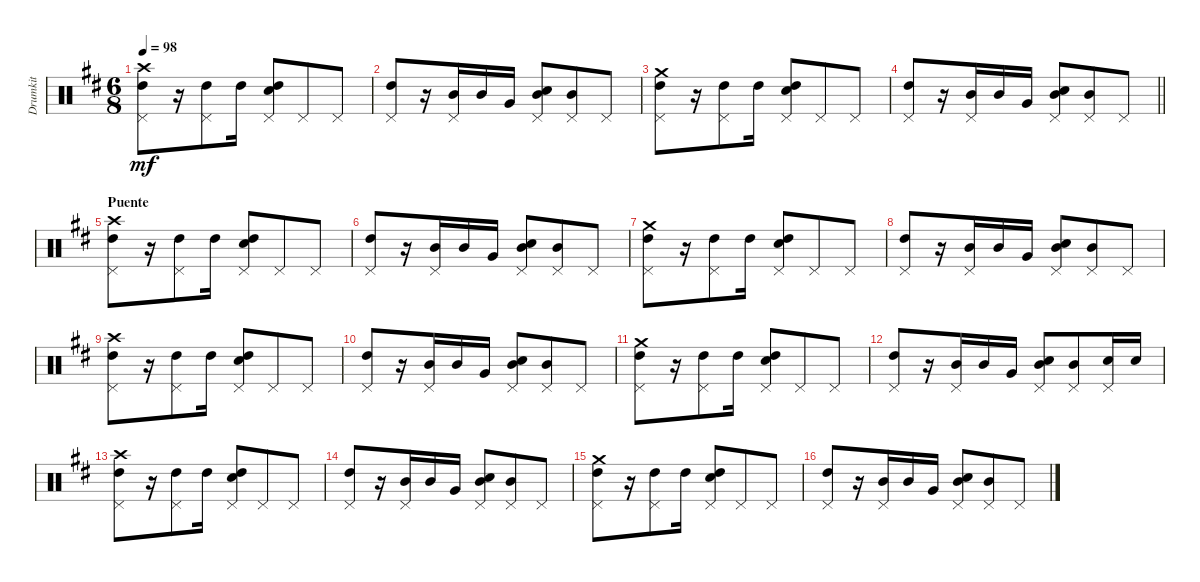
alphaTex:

\track ("Drumkit" "Drumkit") {instrument percussion}
\staff {score}
\articulation defaults
\ts (6 8)
\tempo 98
\clef neutral
\ks d
("High Tom (hit)" "Pedal Hi-Hat (hit)" "Crash high (hit)").8{dy mf} r.16 ("High Tom (hit)" "Pedal Hi-Hat (hit)").8 "High Tom (hit)".16 ("High Tom (hit)" "Snare (hit) 2" "Pedal Hi-Hat (hit)").8 "Pedal Hi-Hat (hit)".8 "Pedal Hi-Hat (hit)".8 |
("High Tom (hit)" "Pedal Hi-Hat (hit)").8 r.16 ("Mid Tom (hit)" "Pedal Hi-Hat (hit)").16 "Mid Tom (hit)".16 "Very Low Tom (hit)".16 ("Mid Tom (hit)" "Snare (hit) 2" "Pedal Hi-Hat (hit)").8 ("Mid Tom (hit)" "Pedal Hi-Hat (hit)").8 "Pedal Hi-Hat (hit)".8 |
("High Tom (hit)" "Pedal Hi-Hat (hit)" "Crash medium (hit)").8 r.16 ("High Tom (hit)" "Pedal Hi-Hat (hit)").8 "High Tom (hit)".16 ("High Tom (hit)" "Snare (hit) 2" "Pedal Hi-Hat (hit)").8 "Pedal Hi-Hat (hit)".8 "Pedal Hi-Hat (hit)".8 |
\barLineRight lightlight
("High Tom (hit)" "Pedal Hi-Hat (hit)").8 r.16 ("Mid Tom (hit)" "Pedal Hi-Hat (hit)").16 "Mid Tom (hit)".16 "Very Low Tom (hit)".16 ("Mid Tom (hit)" "Snare (hit) 2" "Pedal Hi-Hat (hit)").8 ("Mid Tom (hit)" "Pedal Hi-Hat (hit)").8 "Pedal Hi-Hat (hit)".8 |
\section ("" "Puente")
("High Tom (hit)" "Pedal Hi-Hat (hit)" "Crash high (hit)").8 r.16 ("High Tom (hit)" "Pedal Hi-Hat (hit)").8 "High Tom (hit)".16 ("High Tom (hit)" "Snare (hit) 2" "Pedal Hi-Hat (hit)").8 "Pedal Hi-Hat (hit)".8 "Pedal Hi-Hat (hit)".8 |
("High Tom (hit)" "Pedal Hi-Hat (hit)").8 r.16 ("Mid Tom (hit)" "Pedal Hi-Hat (hit)").16 "Mid Tom (hit)".16 "Very Low Tom (hit)".16 ("Mid Tom (hit)" "Snare (hit) 2" "Pedal Hi-Hat (hit)").8 ("Mid Tom (hit)" "Pedal Hi-Hat (hit)").8 "Pedal Hi-Hat (hit)".8 |
("High Tom (hit)" "Pedal Hi-Hat (hit)" "Crash medium (hit)").8 r.16 ("High Tom (hit)" "Pedal Hi-Hat (hit)").8 "High Tom (hit)".16 ("High Tom (hit)" "Snare (hit) 2" "Pedal Hi-Hat (hit)").8 "Pedal Hi-Hat (hit)".8 "Pedal Hi-Hat (hit)".8 |
("High Tom (hit)" "Pedal Hi-Hat (hit)").8 r.16 ("Mid Tom (hit)" "Pedal Hi-Hat (hit)").16 "Mid Tom (hit)".16 "Very Low Tom (hit)".16 ("Mid Tom (hit)" "Snare (hit) 2" "Pedal Hi-Hat (hit)").8 ("Mid Tom (hit)" "Pedal Hi-Hat (hit)").8 "Pedal Hi-Hat (hit)".8 |
("High Tom (hit)" "Pedal Hi-Hat (hit)" "Crash high (hit)").8 r.16 ("High Tom (hit)" "Pedal Hi-Hat (hit)").8 "High Tom (hit)".16 ("High Tom (hit)" "Snare (hit) 2" "Pedal Hi-Hat (hit)").8 "Pedal Hi-Hat (hit)".8 "Pedal Hi-Hat (hit)".8 |
("High Tom (hit)" "Pedal Hi-Hat (hit)").8 r.16 ("Mid Tom (hit)" "Pedal Hi-Hat (hit)").16 "Mid Tom (hit)".16 "Very Low Tom (hit)".16 ("Mid Tom (hit)" "Snare (hit) 2" "Pedal Hi-Hat (hit)").8 ("Mid Tom (hit)" "Pedal Hi-Hat (hit)").8 "Pedal Hi-Hat (hit)".8 |
("High Tom (hit)" "Pedal Hi-Hat (hit)" "Crash medium (hit)").8 r.16 ("High Tom (hit)" "Pedal Hi-Hat (hit)").8 "High Tom (hit)".16 ("High Tom (hit)" "Snare (hit) 2" "Pedal Hi-Hat (hit)").8 "Pedal Hi-Hat (hit)".8 "Pedal Hi-Hat (hit)".8 |
("High Tom (hit)" "Pedal Hi-Hat (hit)").8 r.16 ("Mid Tom (hit)" "Pedal Hi-Hat (hit)").16 "Mid Tom (hit)".16 "Very Low Tom (hit)".16 ("Mid Tom (hit)" "Snare (hit) 2" "Pedal Hi-Hat (hit)").8 ("Mid Tom (hit)" "Pedal Hi-Hat (hit)").8 ("Pedal Hi-Hat (hit)" "Snare (hit) 2").16 "Snare (hit) 2".16 |
("High Tom (hit)" "Pedal Hi-Hat (hit)" "Crash high (hit)").8 r.16 ("High Tom (hit)" "Pedal Hi-Hat (hit)").8 "High Tom (hit)".16 ("High Tom (hit)" "Snare (hit) 2" "Pedal Hi-Hat (hit)").8 "Pedal Hi-Hat (hit)".8 "Pedal Hi-Hat (hit)".8 |
("High Tom (hit)" "Pedal Hi-Hat (hit)").8 r.16 ("Mid Tom (hit)" "Pedal Hi-Hat (hit)").16 "Mid Tom (hit)".16 "Very Low Tom (hit)".16 ("Mid Tom (hit)" "Snare (hit) 2" "Pedal Hi-Hat (hit)").8 ("Mid Tom (hit)" "Pedal Hi-Hat (hit)").8 "Pedal Hi-Hat (hit)".8 |
("High Tom (hit)" "Pedal Hi-Hat (hit)" "Crash medium (hit)").8 r.16 ("High Tom (hit)" "Pedal Hi-Hat (hit)").8 "High Tom (hit)".16 ("High Tom (hit)" "Snare (hit) 2" "Pedal Hi-Hat (hit)").8 "Pedal Hi-Hat (hit)".8 "Pedal Hi-Hat (hit)".8 |
("High Tom (hit)" "Pedal Hi-Hat (hit)").8 r.16 ("Mid Tom (hit)" "Pedal Hi-Hat (hit)").16 "Mid Tom (hit)".16 "Very Low Tom (hit)".16 ("Mid Tom (hit)" "Snare (hit) 2" "Pedal Hi-Hat (hit)").8 ("Mid Tom (hit)" "Pedal Hi-Hat (hit)").8 "Pedal Hi-Hat (hit)".8
